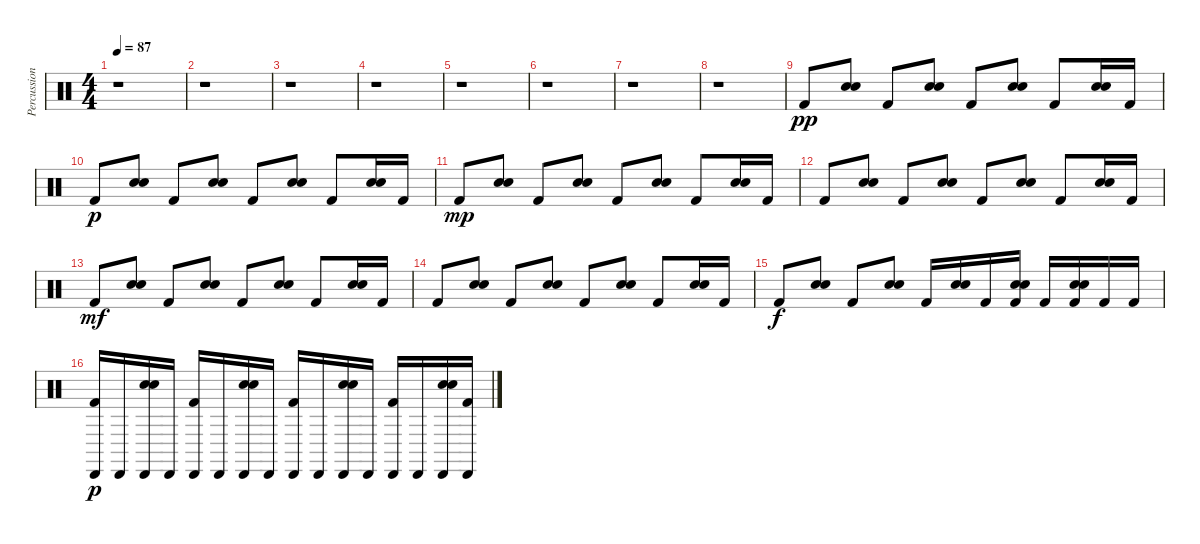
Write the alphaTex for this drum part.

\track ("Percussion" "Percussion") {instrument percussion}
\staff {score}
\articulation defaults
\ts (4 4)
\tempo 87
\clef neutral
\ks c
r.1{dy pp} |
r.1 |
r.1 |
r.1 |
r.1 |
r.1 |
r.1 |
r.1 |
"Kick (hit) 2".8 ("Hand Clap (hit)" "Electric Snare (hit)").8 "Kick (hit) 2".8 ("Hand Clap (hit)" "Electric Snare (hit)").8 "Kick (hit) 2".8 ("Hand Clap (hit)" "Electric Snare (hit)").8 "Kick (hit) 2".8 ("Hand Clap (hit)" "Electric Snare (hit)").16 "Kick (hit) 2".16 |
"Kick (hit) 2".8{dy p} ("Hand Clap (hit)" "Electric Snare (hit)").8 "Kick (hit) 2".8 ("Hand Clap (hit)" "Electric Snare (hit)").8 "Kick (hit) 2".8 ("Hand Clap (hit)" "Electric Snare (hit)").8 "Kick (hit) 2".8 ("Hand Clap (hit)" "Electric Snare (hit)").16 "Kick (hit) 2".16 |
"Kick (hit) 2".8{dy mp} ("Hand Clap (hit)" "Electric Snare (hit)").8 "Kick (hit) 2".8 ("Hand Clap (hit)" "Electric Snare (hit)").8 "Kick (hit) 2".8 ("Hand Clap (hit)" "Electric Snare (hit)").8 "Kick (hit) 2".8 ("Hand Clap (hit)" "Electric Snare (hit)").16 "Kick (hit) 2".16 |
"Kick (hit) 2".8 ("Hand Clap (hit)" "Electric Snare (hit)").8 "Kick (hit) 2".8 ("Hand Clap (hit)" "Electric Snare (hit)").8 "Kick (hit) 2".8 ("Hand Clap (hit)" "Electric Snare (hit)").8 "Kick (hit) 2".8 ("Hand Clap (hit)" "Electric Snare (hit)").16 "Kick (hit) 2".16 |
"Kick (hit) 2".8{dy mf} ("Hand Clap (hit)" "Electric Snare (hit)").8 "Kick (hit) 2".8 ("Hand Clap (hit)" "Electric Snare (hit)").8 "Kick (hit) 2".8 ("Hand Clap (hit)" "Electric Snare (hit)").8 "Kick (hit) 2".8 ("Hand Clap (hit)" "Electric Snare (hit)").16 "Kick (hit) 2".16 |
"Kick (hit) 2".8 ("Hand Clap (hit)" "Electric Snare (hit)").8 "Kick (hit) 2".8 ("Hand Clap (hit)" "Electric Snare (hit)").8 "Kick (hit) 2".8 ("Hand Clap (hit)" "Electric Snare (hit)").8 "Kick (hit) 2".8 ("Hand Clap (hit)" "Electric Snare (hit)").16 "Kick (hit) 2".16 |
"Kick (hit) 2".8{dy f} ("Hand Clap (hit)" "Electric Snare (hit)").8 "Kick (hit) 2".8 ("Hand Clap (hit)" "Electric Snare (hit)").8 "Kick (hit) 2".16 ("Hand Clap (hit)" "Hand Clap (hit)").16 "Kick (hit) 2".16 ("Hand Clap (hit)" "Hand Clap (hit)" "Kick (hit) 2").16 "Kick (hit) 2".16 ("Hand Clap (hit)" "Hand Clap (hit)" "Kick (hit) 2").16 "Kick (hit) 2".16 "Kick (hit) 2".16 |
("Cabasa (hit)" "Kick (hit) 2").16{dy p} "Cabasa (hit)".16 ("Cabasa (hit)" "Hand Clap (hit)" "Electric Snare (hit)").16 "Cabasa (hit)".16 ("Cabasa (hit)" "Kick (hit) 2").16 "Cabasa (hit)".16 ("Cabasa (hit)" "Hand Clap (hit)" "Electric Snare (hit)").16 "Cabasa (hit)".16 ("Cabasa (hit)" "Kick (hit) 2").16 "Cabasa (hit)".16 ("Cabasa (hit)" "Hand Clap (hit)" "Electric Snare (hit)").16 "Cabasa (hit)".16 ("Cabasa (hit)" "Kick (hit) 2").16 "Cabasa (hit)".16 ("Cabasa (hit)" "Hand Clap (hit)" "Electric Snare (hit)").16 ("Cabasa (hit)" "Kick (hit) 2").16
